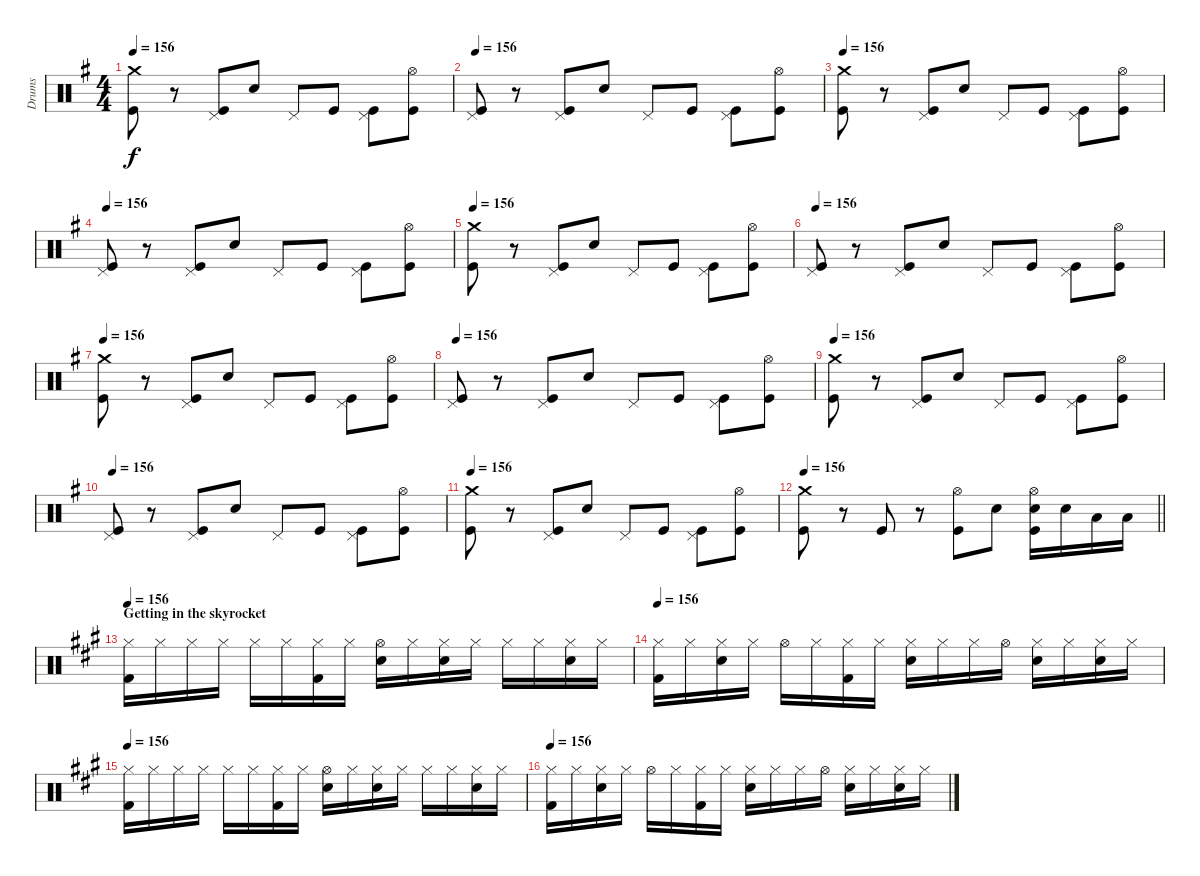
\track ("Drums" "Drums") {instrument percussion}
\staff {score}
\articulation defaults
\ts (4 4)
\tempo 156
\clef neutral
\ks g
("Crash medium (hit)" "Kick (hit)").8{dy f} r.8 ("Pedal Hi-Hat (hit)" "Kick (hit)").8 "Electric Snare (hit)".8 "Pedal Hi-Hat (hit)".8 "Kick (hit)".8 ("Pedal Hi-Hat (hit)" "Kick (hit)").8 ("Hi-Hat (open)" "Kick (hit)").8 |
\tempo 156
("Pedal Hi-Hat (hit)" "Kick (hit)").8 r.8 ("Pedal Hi-Hat (hit)" "Kick (hit)").8 "Electric Snare (hit)".8 "Pedal Hi-Hat (hit)".8 "Kick (hit)".8 ("Pedal Hi-Hat (hit)" "Kick (hit)").8 ("Hi-Hat (open)" "Kick (hit)").8 |
\tempo 156
("Crash medium (hit)" "Kick (hit)").8 r.8 ("Pedal Hi-Hat (hit)" "Kick (hit)").8 "Electric Snare (hit)".8 "Pedal Hi-Hat (hit)".8 "Kick (hit)".8 ("Pedal Hi-Hat (hit)" "Kick (hit)").8 ("Hi-Hat (open)" "Kick (hit)").8 |
\tempo 156
("Pedal Hi-Hat (hit)" "Kick (hit)").8 r.8 ("Pedal Hi-Hat (hit)" "Kick (hit)").8 "Electric Snare (hit)".8 "Pedal Hi-Hat (hit)".8 "Kick (hit)".8 ("Pedal Hi-Hat (hit)" "Kick (hit)").8 ("Hi-Hat (open)" "Kick (hit)").8 |
\tempo 156
("Crash medium (hit)" "Kick (hit)").8 r.8 ("Pedal Hi-Hat (hit)" "Kick (hit)").8 "Electric Snare (hit)".8 "Pedal Hi-Hat (hit)".8 "Kick (hit)".8 ("Pedal Hi-Hat (hit)" "Kick (hit)").8 ("Hi-Hat (open)" "Kick (hit)").8 |
\tempo 156
("Pedal Hi-Hat (hit)" "Kick (hit)").8 r.8 ("Pedal Hi-Hat (hit)" "Kick (hit)").8 "Electric Snare (hit)".8 "Pedal Hi-Hat (hit)".8 "Kick (hit)".8 ("Pedal Hi-Hat (hit)" "Kick (hit)").8 ("Hi-Hat (open)" "Kick (hit)").8 |
\tempo 156
("Crash medium (hit)" "Kick (hit)").8 r.8 ("Pedal Hi-Hat (hit)" "Kick (hit)").8 "Electric Snare (hit)".8 "Pedal Hi-Hat (hit)".8 "Kick (hit)".8 ("Pedal Hi-Hat (hit)" "Kick (hit)").8 ("Hi-Hat (open)" "Kick (hit)").8 |
\tempo 156
("Pedal Hi-Hat (hit)" "Kick (hit)").8 r.8 ("Pedal Hi-Hat (hit)" "Kick (hit)").8 "Electric Snare (hit)".8 "Pedal Hi-Hat (hit)".8 "Kick (hit)".8 ("Pedal Hi-Hat (hit)" "Kick (hit)").8 ("Hi-Hat (open)" "Kick (hit)").8 |
\tempo 156
("Crash medium (hit)" "Kick (hit)").8 r.8 ("Pedal Hi-Hat (hit)" "Kick (hit)").8 "Electric Snare (hit)".8 "Pedal Hi-Hat (hit)".8 "Kick (hit)".8 ("Pedal Hi-Hat (hit)" "Kick (hit)").8 ("Hi-Hat (open)" "Kick (hit)").8 |
\tempo 156
("Pedal Hi-Hat (hit)" "Kick (hit)").8 r.8 ("Pedal Hi-Hat (hit)" "Kick (hit)").8 "Electric Snare (hit)".8 "Pedal Hi-Hat (hit)".8 "Kick (hit)".8 ("Pedal Hi-Hat (hit)" "Kick (hit)").8 ("Hi-Hat (open)" "Kick (hit)").8 |
\tempo 156
("Crash medium (hit)" "Kick (hit)").8 r.8 ("Pedal Hi-Hat (hit)" "Kick (hit)").8 "Electric Snare (hit)".8 "Pedal Hi-Hat (hit)".8 "Kick (hit)".8 ("Pedal Hi-Hat (hit)" "Kick (hit)").8 ("Hi-Hat (open)" "Kick (hit)").8 |
\tempo 156
\barLineRight lightlight
("Crash medium (hit)" "Kick (hit)").8 r.8 "Kick (hit)".8 r.8 ("Hi-Hat (open)" "Kick (hit)").8 "Electric Snare (hit)".8 ("Hi-Hat (open)" "Electric Snare (hit)" "Kick (hit)").16 "Electric Snare (hit)".16 "Low Tom (hit)".16 "Low Tom (hit)".16 |
\section ("" "Getting in the skyrocket")
\tempo 156
\ks f#minor
("Hi-Hat (closed)" "Kick (hit) 2").16 "Hi-Hat (closed)".16 "Hi-Hat (closed)".16 "Hi-Hat (closed)".16 "Hi-Hat (closed)".16 "Hi-Hat (closed)".16 ("Hi-Hat (closed)" "Kick (hit) 2").16 "Hi-Hat (closed)".16 ("Hi-Hat (open)" "Snare (hit) 2").16 "Hi-Hat (closed)".16 ("Hi-Hat (closed)" "Snare (hit) 2").16 "Hi-Hat (closed)".16 "Hi-Hat (closed)".16 "Hi-Hat (closed)".16 ("Hi-Hat (closed)" "Snare (hit) 2").16 "Hi-Hat (closed)".16 |
\tempo 156
("Hi-Hat (closed)" "Kick (hit) 2").16 "Hi-Hat (closed)".16 ("Hi-Hat (closed)" "Snare (hit) 2").16 "Hi-Hat (closed)".16 "Hi-Hat (open)".16 "Hi-Hat (closed)".16 ("Hi-Hat (closed)" "Kick (hit) 2").16 "Hi-Hat (closed)".16 ("Hi-Hat (closed)" "Snare (hit) 2").16 "Hi-Hat (closed)".16 "Hi-Hat (closed)".16 "Hi-Hat (open)".16 ("Hi-Hat (closed)" "Snare (hit) 2").16 "Hi-Hat (closed)".16 ("Hi-Hat (closed)" "Snare (hit) 2").16 "Hi-Hat (closed)".16 |
\tempo 156
("Hi-Hat (closed)" "Kick (hit) 2").16 "Hi-Hat (closed)".16 "Hi-Hat (closed)".16 "Hi-Hat (closed)".16 "Hi-Hat (closed)".16 "Hi-Hat (closed)".16 ("Hi-Hat (closed)" "Kick (hit) 2").16 "Hi-Hat (closed)".16 ("Hi-Hat (open)" "Snare (hit) 2").16 "Hi-Hat (closed)".16 ("Hi-Hat (closed)" "Snare (hit) 2").16 "Hi-Hat (closed)".16 "Hi-Hat (closed)".16 "Hi-Hat (closed)".16 ("Hi-Hat (closed)" "Snare (hit) 2").16 "Hi-Hat (closed)".16 |
\tempo 156
("Hi-Hat (closed)" "Kick (hit) 2").16 "Hi-Hat (closed)".16 ("Hi-Hat (closed)" "Snare (hit) 2").16 "Hi-Hat (closed)".16 "Hi-Hat (open)".16 "Hi-Hat (closed)".16 ("Hi-Hat (closed)" "Kick (hit) 2").16 "Hi-Hat (closed)".16 ("Hi-Hat (closed)" "Snare (hit) 2").16 "Hi-Hat (closed)".16 "Hi-Hat (closed)".16 "Hi-Hat (open)".16 ("Hi-Hat (closed)" "Snare (hit) 2").16 "Hi-Hat (closed)".16 ("Hi-Hat (closed)" "Snare (hit) 2").16 "Hi-Hat (closed)".16
